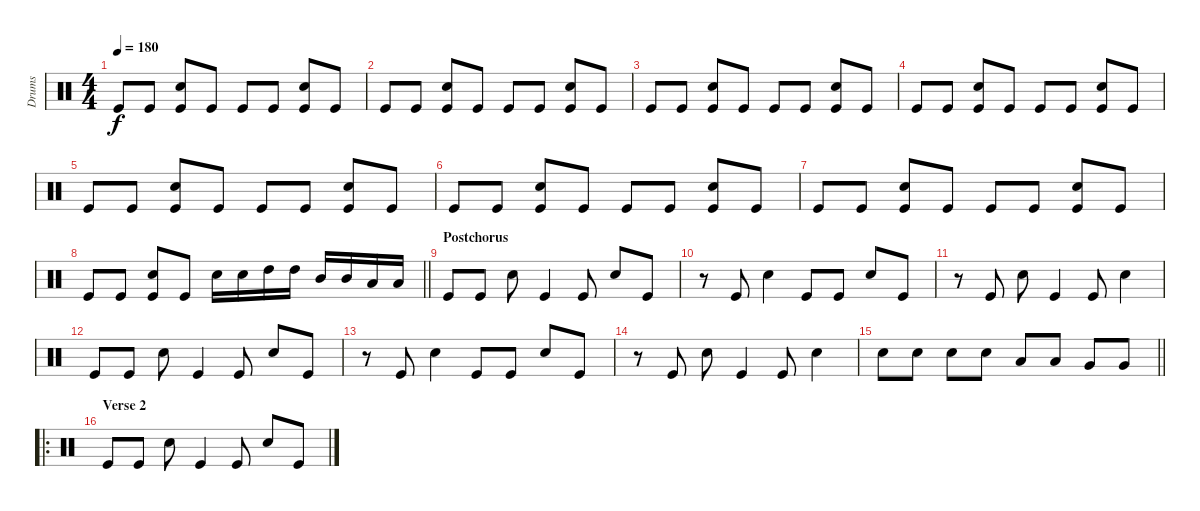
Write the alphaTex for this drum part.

\track ("Drums" "Drums") {instrument percussion}
\staff {score}
\articulation defaults
\ts (4 4)
\tempo 180
\clef neutral
\ks c "Kick (hit)".8{dy f} "Kick (hit)".8
("Electric Snare (hit)" "Kick (hit)").8 "Kick (hit)".8 "Kick (hit)".8 "Kick (hit)".8 ("Electric Snare (hit)" "Kick (hit)").8 "Kick (hit)".8 |
"Kick (hit)".8 "Kick (hit)".8 ("Electric Snare (hit)" "Kick (hit)").8 "Kick (hit)".8 "Kick (hit)".8 "Kick (hit)".8 ("Electric Snare (hit)" "Kick (hit)").8 "Kick (hit)".8 |
"Kick (hit)".8 "Kick (hit)".8 ("Electric Snare (hit)" "Kick (hit)").8 "Kick (hit)".8 "Kick (hit)".8 "Kick (hit)".8 ("Electric Snare (hit)" "Kick (hit)").8 "Kick (hit)".8 |
"Kick (hit)".8 "Kick (hit)".8 ("Electric Snare (hit)" "Kick (hit)").8 "Kick (hit)".8 "Kick (hit)".8 "Kick (hit)".8 ("Electric Snare (hit)" "Kick (hit)").8 "Kick (hit)".8 |
"Kick (hit)".8 "Kick (hit)".8 ("Electric Snare (hit)" "Kick (hit)").8 "Kick (hit)".8 "Kick (hit)".8 "Kick (hit)".8 ("Electric Snare (hit)" "Kick (hit)").8 "Kick (hit)".8 |
"Kick (hit)".8 "Kick (hit)".8 ("Electric Snare (hit)" "Kick (hit)").8 "Kick (hit)".8 "Kick (hit)".8 "Kick (hit)".8 ("Electric Snare (hit)" "Kick (hit)").8 "Kick (hit)".8 |
"Kick (hit)".8 "Kick (hit)".8 ("Electric Snare (hit)" "Kick (hit)").8 "Kick (hit)".8 "Kick (hit)".8 "Kick (hit)".8 ("Electric Snare (hit)" "Kick (hit)").8 "Kick (hit)".8 |
\barLineRight lightlight "Kick (hit)".8 "Kick (hit)".8
("Electric Snare (hit)" "Kick (hit)").8 "Kick (hit)".8 "Electric Snare (hit)".16 "Electric Snare (hit)".16 "High Tom (hit)".16 "High Tom (hit)".16 "Mid Tom (hit)".16 "Mid Tom (hit)".16 "Low Tom (hit)".16 "Low Tom (hit)".16 |
\section ("" "Postchorus")
"Kick (hit)".8 "Kick (hit)".8 "Electric Snare (hit)".8 "Kick (hit)".4 "Kick (hit)".8 "Electric Snare (hit)".8 "Kick (hit)".8 |
r.8 "Kick (hit)".8 "Electric Snare (hit)".4 "Kick (hit)".8 "Kick (hit)".8 "Electric Snare (hit)".8 "Kick (hit)".8 |
r.8 "Kick (hit)".8 "Electric Snare (hit)".8 "Kick (hit)".4 "Kick (hit)".8 "Electric Snare (hit)".4 |
"Kick (hit)".8 "Kick (hit)".8 "Electric Snare (hit)".8 "Kick (hit)".4 "Kick (hit)".8 "Electric Snare (hit)".8 "Kick (hit)".8 |
r.8 "Kick (hit)".8 "Electric Snare (hit)".4 "Kick (hit)".8 "Kick (hit)".8 "Electric Snare (hit)".8 "Kick (hit)".8 |
r.8 "Kick (hit)".8 "Electric Snare (hit)".8 "Kick (hit)".4 "Kick (hit)".8 "Electric Snare (hit)".4 |
\barLineRight lightlight "Electric Snare (hit)".8 "Electric Snare (hit)".8 "Electric Snare (hit)".8 "Electric Snare (hit)".8 "Low Tom (hit)".8 "Low Tom (hit)".8 "Very Low Tom (hit)".8 "Very Low Tom (hit)".8
|
\ro
\section ("" "Verse 2")
"Kick (hit)".8 "Kick (hit)".8 "Electric Snare (hit)".8 "Kick (hit)".4 "Kick (hit)".8 "Electric Snare (hit)".8 "Kick (hit)".8
